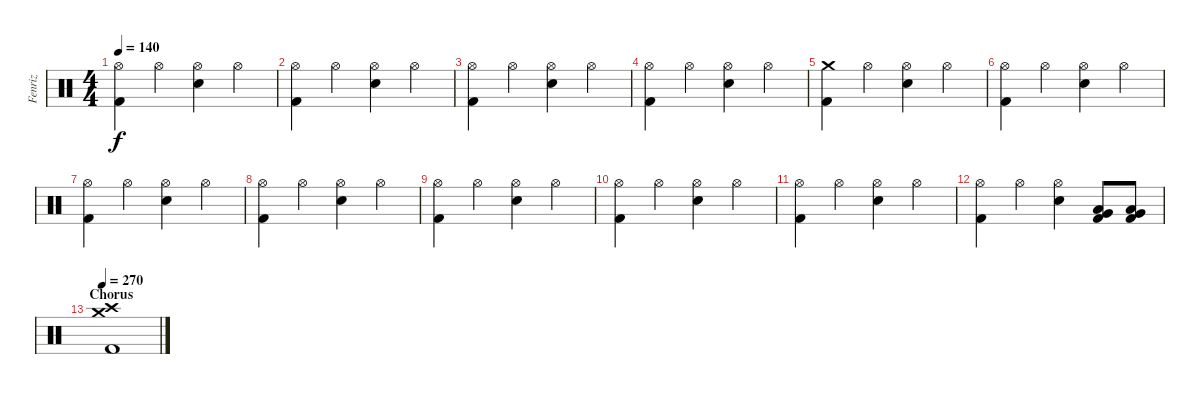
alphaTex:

\track ("Fenriz" "Fenriz") {instrument percussion}
\staff {score}
\articulation defaults
\ts (4 4)
\tempo 140
\clef neutral
\ks c
("Hi-Hat (open)" "Kick (hit) 2").4{dy f} "Hi-Hat (open)".4 ("Hi-Hat (open)" "Electric Snare (hit)").4 "Hi-Hat (open)".4 |
("Hi-Hat (open)" "Kick (hit) 2").4 "Hi-Hat (open)".4 ("Hi-Hat (open)" "Electric Snare (hit)").4 "Hi-Hat (open)".4 |
("Hi-Hat (open)" "Kick (hit) 2").4 "Hi-Hat (open)".4 ("Hi-Hat (open)" "Electric Snare (hit)").4 "Hi-Hat (open)".4 |
("Hi-Hat (open)" "Kick (hit) 2").4 "Hi-Hat (open)".4 ("Hi-Hat (open)" "Electric Snare (hit)").4 "Hi-Hat (open)".4 |
("Crash medium (hit)" "Kick (hit) 2").4 "Hi-Hat (open)".4 ("Hi-Hat (open)" "Electric Snare (hit)").4 "Hi-Hat (open)".4 |
("Hi-Hat (open)" "Kick (hit) 2").4 "Hi-Hat (open)".4 ("Hi-Hat (open)" "Electric Snare (hit)").4 "Hi-Hat (open)".4 |
("Hi-Hat (open)" "Kick (hit) 2").4 "Hi-Hat (open)".4 ("Hi-Hat (open)" "Electric Snare (hit)").4 "Hi-Hat (open)".4 |
("Hi-Hat (open)" "Kick (hit) 2").4 "Hi-Hat (open)".4 ("Hi-Hat (open)" "Electric Snare (hit)").4 "Hi-Hat (open)".4 |
("Hi-Hat (open)" "Kick (hit) 2").4 "Hi-Hat (open)".4 ("Hi-Hat (open)" "Electric Snare (hit)").4 "Hi-Hat (open)".4 |
("Hi-Hat (open)" "Kick (hit) 2").4 "Hi-Hat (open)".4 ("Hi-Hat (open)" "Electric Snare (hit)").4 "Hi-Hat (open)".4 |
("Hi-Hat (open)" "Kick (hit) 2").4 "Hi-Hat (open)".4 ("Hi-Hat (open)" "Electric Snare (hit)").4 "Hi-Hat (open)".4 |
("Hi-Hat (open)" "Kick (hit) 2").4 "Hi-Hat (open)".4 ("Hi-Hat (open)" "Electric Snare (hit)").4 ("Very Low Tom (hit)" "Low Floor Tom (hit)" "Kick (hit) 2").8 ("Very Low Tom (hit)" "Low Floor Tom (hit)" "Kick (hit) 2").8 |
\section ("" "Chorus")
\tempo 270
("Crash medium (hit)" "Crash high (hit)" "Kick (hit) 2").1
